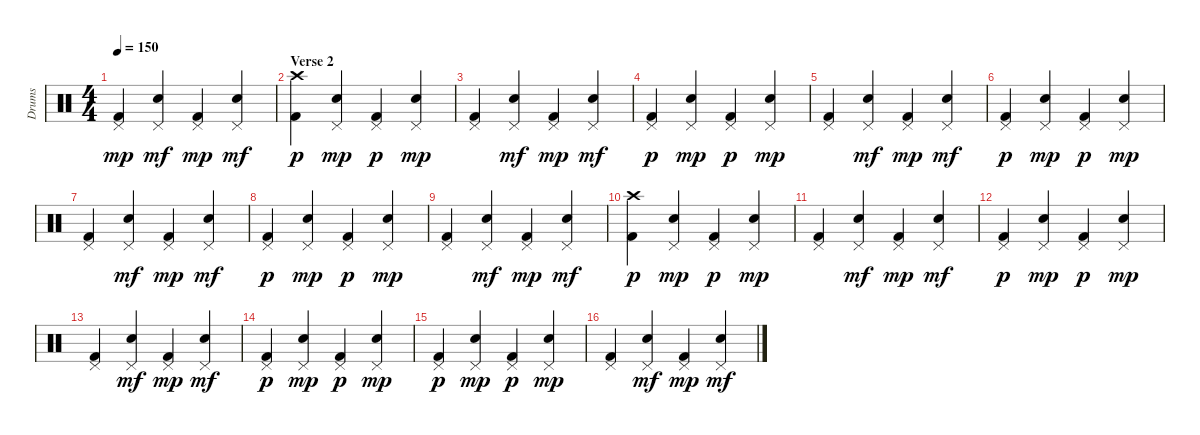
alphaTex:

\track ("Drums" "Drums") {instrument percussion}
\staff {score}
\articulation defaults
\ts (4 4)
\tempo 150
\clef neutral
\ks c
("Pedal Hi-Hat (hit)" "Kick (hit) 2").4{dy mp} ("Pedal Hi-Hat (hit)" "Electric Snare (hit)").4{dy mf} ("Pedal Hi-Hat (hit)" "Kick (hit) 2").4{dy mp} ("Pedal Hi-Hat (hit)" "Electric Snare (hit)").4{dy mf} |
\section ("" "Verse 2")
("Crash high (hit)" "Kick (hit) 2").4{dy p} ("Pedal Hi-Hat (hit)" "Electric Snare (hit)").4{dy mp} ("Pedal Hi-Hat (hit)" "Kick (hit) 2").4{dy p} ("Pedal Hi-Hat (hit)" "Electric Snare (hit)").4{dy mp} |
("Pedal Hi-Hat (hit)" "Kick (hit) 2").4 ("Pedal Hi-Hat (hit)" "Electric Snare (hit)").4{dy mf} ("Pedal Hi-Hat (hit)" "Kick (hit) 2").4{dy mp} ("Pedal Hi-Hat (hit)" "Electric Snare (hit)").4{dy mf} |
("Pedal Hi-Hat (hit)" "Kick (hit) 2").4{dy p} ("Pedal Hi-Hat (hit)" "Electric Snare (hit)").4{dy mp} ("Pedal Hi-Hat (hit)" "Kick (hit) 2").4{dy p} ("Pedal Hi-Hat (hit)" "Electric Snare (hit)").4{dy mp} |
("Pedal Hi-Hat (hit)" "Kick (hit) 2").4 ("Pedal Hi-Hat (hit)" "Electric Snare (hit)").4{dy mf} ("Pedal Hi-Hat (hit)" "Kick (hit) 2").4{dy mp} ("Pedal Hi-Hat (hit)" "Electric Snare (hit)").4{dy mf} |
("Pedal Hi-Hat (hit)" "Kick (hit) 2").4{dy p} ("Pedal Hi-Hat (hit)" "Electric Snare (hit)").4{dy mp} ("Pedal Hi-Hat (hit)" "Kick (hit) 2").4{dy p} ("Pedal Hi-Hat (hit)" "Electric Snare (hit)").4{dy mp} |
("Pedal Hi-Hat (hit)" "Kick (hit) 2").4 ("Pedal Hi-Hat (hit)" "Electric Snare (hit)").4{dy mf} ("Pedal Hi-Hat (hit)" "Kick (hit) 2").4{dy mp} ("Pedal Hi-Hat (hit)" "Electric Snare (hit)").4{dy mf} |
("Pedal Hi-Hat (hit)" "Kick (hit) 2").4{dy p} ("Pedal Hi-Hat (hit)" "Electric Snare (hit)").4{dy mp} ("Pedal Hi-Hat (hit)" "Kick (hit) 2").4{dy p} ("Pedal Hi-Hat (hit)" "Electric Snare (hit)").4{dy mp} |
("Pedal Hi-Hat (hit)" "Kick (hit) 2").4 ("Pedal Hi-Hat (hit)" "Electric Snare (hit)").4{dy mf} ("Pedal Hi-Hat (hit)" "Kick (hit) 2").4{dy mp} ("Pedal Hi-Hat (hit)" "Electric Snare (hit)").4{dy mf} |
("Crash high (hit)" "Kick (hit) 2").4{dy p} ("Pedal Hi-Hat (hit)" "Electric Snare (hit)").4{dy mp} ("Pedal Hi-Hat (hit)" "Kick (hit) 2").4{dy p} ("Pedal Hi-Hat (hit)" "Electric Snare (hit)").4{dy mp} |
("Pedal Hi-Hat (hit)" "Kick (hit) 2").4 ("Pedal Hi-Hat (hit)" "Electric Snare (hit)").4{dy mf} ("Pedal Hi-Hat (hit)" "Kick (hit) 2").4{dy mp} ("Pedal Hi-Hat (hit)" "Electric Snare (hit)").4{dy mf} |
("Pedal Hi-Hat (hit)" "Kick (hit) 2").4{dy p} ("Pedal Hi-Hat (hit)" "Electric Snare (hit)").4{dy mp} ("Pedal Hi-Hat (hit)" "Kick (hit) 2").4{dy p} ("Pedal Hi-Hat (hit)" "Electric Snare (hit)").4{dy mp} |
("Pedal Hi-Hat (hit)" "Kick (hit) 2").4 ("Pedal Hi-Hat (hit)" "Electric Snare (hit)").4{dy mf} ("Pedal Hi-Hat (hit)" "Kick (hit) 2").4{dy mp} ("Pedal Hi-Hat (hit)" "Electric Snare (hit)").4{dy mf} |
("Pedal Hi-Hat (hit)" "Kick (hit) 2").4{dy p} ("Pedal Hi-Hat (hit)" "Electric Snare (hit)").4{dy mp} ("Pedal Hi-Hat (hit)" "Kick (hit) 2").4{dy p} ("Pedal Hi-Hat (hit)" "Electric Snare (hit)").4{dy mp} |
("Pedal Hi-Hat (hit)" "Kick (hit) 2").4{dy p} ("Pedal Hi-Hat (hit)" "Electric Snare (hit)").4{dy mp} ("Pedal Hi-Hat (hit)" "Kick (hit) 2").4{dy p} ("Pedal Hi-Hat (hit)" "Electric Snare (hit)").4{dy mp} |
("Pedal Hi-Hat (hit)" "Kick (hit) 2").4 ("Pedal Hi-Hat (hit)" "Electric Snare (hit)").4{dy mf} ("Pedal Hi-Hat (hit)" "Kick (hit) 2").4{dy mp} ("Pedal Hi-Hat (hit)" "Electric Snare (hit)").4{dy mf}
